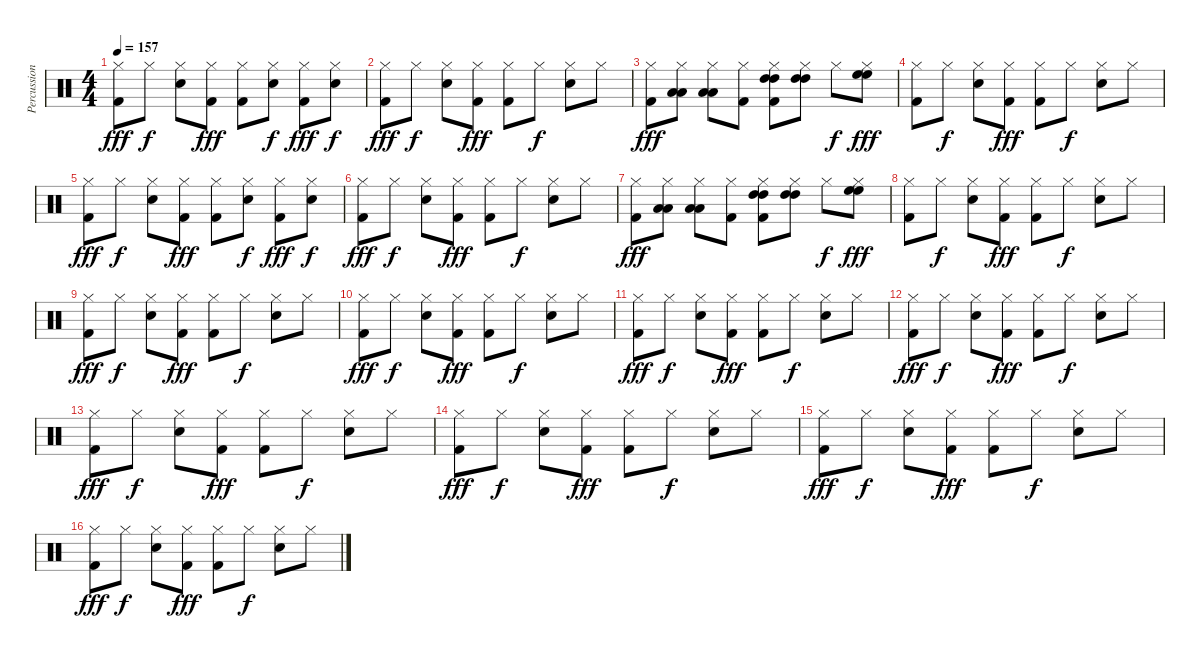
\track ("Percussioni" "Percussion") {instrument percussion}
\staff {score}
\articulation defaults
\ts (4 4)
\tempo 157
\clef neutral
\ks c
("Hi-Hat (closed)" "Kick (hit) 2").8{dy fff} "Hi-Hat (closed)".8{dy f} ("Hi-Hat (closed)" "Snare (hit) 2").8 ("Hi-Hat (closed)" "Kick (hit) 2").8{dy fff} ("Hi-Hat (closed)" "Kick (hit) 2").8 ("Hi-Hat (closed)" "Snare (hit) 2").8{dy f} ("Hi-Hat (closed)" "Kick (hit) 2").8{dy fff} ("Hi-Hat (closed)" "Snare (hit) 2").8{dy f} |
("Hi-Hat (closed)" "Kick (hit) 2").8{dy fff} "Hi-Hat (closed)".8{dy f} ("Hi-Hat (closed)" "Snare (hit) 2").8 ("Hi-Hat (closed)" "Kick (hit) 2").8{dy fff} ("Hi-Hat (closed)" "Kick (hit) 2").8 "Hi-Hat (closed)".8{dy f} ("Hi-Hat (closed)" "Snare (hit) 2").8 "Hi-Hat (closed)".8 |
("Hi-Hat (closed)" "Kick (hit) 2").8{dy fff} ("Low Tom (hit)" "Low Tom (hit)" "Hi-Hat (closed)").8 ("Low Tom (hit)" "Low Tom (hit)" "Hi-Hat (closed)").8 ("Hi-Hat (closed)" "Kick (hit) 2").8 ("High Tom (hit)" "High Tom (hit)" "Hi-Hat (closed)" "Kick (hit) 2").8 ("High Tom (hit)" "High Tom (hit)" "Hi-Hat (closed)").8 "Hi-Hat (closed)".8{dy f} ("High Floor Tom (hit)" "High Floor Tom (hit)" "Hi-Hat (closed)").8{dy fff} |
("Hi-Hat (closed)" "Kick (hit) 2").8 "Hi-Hat (closed)".8{dy f} ("Hi-Hat (closed)" "Snare (hit) 2").8 ("Hi-Hat (closed)" "Kick (hit) 2").8{dy fff} ("Hi-Hat (closed)" "Kick (hit) 2").8 "Hi-Hat (closed)".8{dy f} ("Hi-Hat (closed)" "Snare (hit) 2").8 "Hi-Hat (closed)".8 |
("Hi-Hat (closed)" "Kick (hit) 2").8{dy fff} "Hi-Hat (closed)".8{dy f} ("Hi-Hat (closed)" "Snare (hit) 2").8 ("Hi-Hat (closed)" "Kick (hit) 2").8{dy fff} ("Hi-Hat (closed)" "Kick (hit) 2").8 ("Hi-Hat (closed)" "Snare (hit) 2").8{dy f} ("Hi-Hat (closed)" "Kick (hit) 2").8{dy fff} ("Hi-Hat (closed)" "Snare (hit) 2").8{dy f} |
("Hi-Hat (closed)" "Kick (hit) 2").8{dy fff} "Hi-Hat (closed)".8{dy f} ("Hi-Hat (closed)" "Snare (hit) 2").8 ("Hi-Hat (closed)" "Kick (hit) 2").8{dy fff} ("Hi-Hat (closed)" "Kick (hit) 2").8 "Hi-Hat (closed)".8{dy f} ("Hi-Hat (closed)" "Snare (hit) 2").8 "Hi-Hat (closed)".8 |
("Hi-Hat (closed)" "Kick (hit) 2").8{dy fff} ("Low Tom (hit)" "Low Tom (hit)" "Hi-Hat (closed)").8 ("Low Tom (hit)" "Low Tom (hit)" "Hi-Hat (closed)").8 ("Hi-Hat (closed)" "Kick (hit) 2").8 ("High Tom (hit)" "High Tom (hit)" "Hi-Hat (closed)" "Kick (hit) 2").8 ("High Tom (hit)" "High Tom (hit)" "Hi-Hat (closed)").8 "Hi-Hat (closed)".8{dy f} ("High Floor Tom (hit)" "High Floor Tom (hit)" "Hi-Hat (closed)").8{dy fff} |
("Hi-Hat (closed)" "Kick (hit) 2").8 "Hi-Hat (closed)".8{dy f} ("Hi-Hat (closed)" "Snare (hit) 2").8 ("Hi-Hat (closed)" "Kick (hit) 2").8{dy fff} ("Hi-Hat (closed)" "Kick (hit) 2").8 "Hi-Hat (closed)".8{dy f} ("Hi-Hat (closed)" "Snare (hit) 2").8 "Hi-Hat (closed)".8 |
("Hi-Hat (closed)" "Kick (hit) 2").8{dy fff} "Hi-Hat (closed)".8{dy f} ("Hi-Hat (closed)" "Snare (hit) 2").8 ("Hi-Hat (closed)" "Kick (hit) 2").8{dy fff} ("Hi-Hat (closed)" "Kick (hit) 2").8 "Hi-Hat (closed)".8{dy f} ("Hi-Hat (closed)" "Snare (hit) 2").8 "Hi-Hat (closed)".8 |
("Hi-Hat (closed)" "Kick (hit) 2").8{dy fff} "Hi-Hat (closed)".8{dy f} ("Hi-Hat (closed)" "Snare (hit) 2").8 ("Hi-Hat (closed)" "Kick (hit) 2").8{dy fff} ("Hi-Hat (closed)" "Kick (hit) 2").8 "Hi-Hat (closed)".8{dy f} ("Hi-Hat (closed)" "Snare (hit) 2").8 "Hi-Hat (closed)".8 |
("Hi-Hat (closed)" "Kick (hit) 2").8{dy fff} "Hi-Hat (closed)".8{dy f} ("Hi-Hat (closed)" "Snare (hit) 2").8 ("Hi-Hat (closed)" "Kick (hit) 2").8{dy fff} ("Hi-Hat (closed)" "Kick (hit) 2").8 "Hi-Hat (closed)".8{dy f} ("Hi-Hat (closed)" "Snare (hit) 2").8 "Hi-Hat (closed)".8 |
("Hi-Hat (closed)" "Kick (hit) 2").8{dy fff} "Hi-Hat (closed)".8{dy f} ("Hi-Hat (closed)" "Snare (hit) 2").8 ("Hi-Hat (closed)" "Kick (hit) 2").8{dy fff} ("Hi-Hat (closed)" "Kick (hit) 2").8 "Hi-Hat (closed)".8{dy f} ("Hi-Hat (closed)" "Snare (hit) 2").8 "Hi-Hat (closed)".8 |
("Hi-Hat (closed)" "Kick (hit) 2").8{dy fff} "Hi-Hat (closed)".8{dy f} ("Hi-Hat (closed)" "Snare (hit) 2").8 ("Hi-Hat (closed)" "Kick (hit) 2").8{dy fff} ("Hi-Hat (closed)" "Kick (hit) 2").8 "Hi-Hat (closed)".8{dy f} ("Hi-Hat (closed)" "Snare (hit) 2").8 "Hi-Hat (closed)".8 |
("Hi-Hat (closed)" "Kick (hit) 2").8{dy fff} "Hi-Hat (closed)".8{dy f} ("Hi-Hat (closed)" "Snare (hit) 2").8 ("Hi-Hat (closed)" "Kick (hit) 2").8{dy fff} ("Hi-Hat (closed)" "Kick (hit) 2").8 "Hi-Hat (closed)".8{dy f} ("Hi-Hat (closed)" "Snare (hit) 2").8 "Hi-Hat (closed)".8 |
("Hi-Hat (closed)" "Kick (hit) 2").8{dy fff} "Hi-Hat (closed)".8{dy f} ("Hi-Hat (closed)" "Snare (hit) 2").8 ("Hi-Hat (closed)" "Kick (hit) 2").8{dy fff} ("Hi-Hat (closed)" "Kick (hit) 2").8 "Hi-Hat (closed)".8{dy f} ("Hi-Hat (closed)" "Snare (hit) 2").8 "Hi-Hat (closed)".8 |
("Hi-Hat (closed)" "Kick (hit) 2").8{dy fff} "Hi-Hat (closed)".8{dy f} ("Hi-Hat (closed)" "Snare (hit) 2").8 ("Hi-Hat (closed)" "Kick (hit) 2").8{dy fff} ("Hi-Hat (closed)" "Kick (hit) 2").8 "Hi-Hat (closed)".8{dy f} ("Hi-Hat (closed)" "Snare (hit) 2").8 "Hi-Hat (closed)".8
